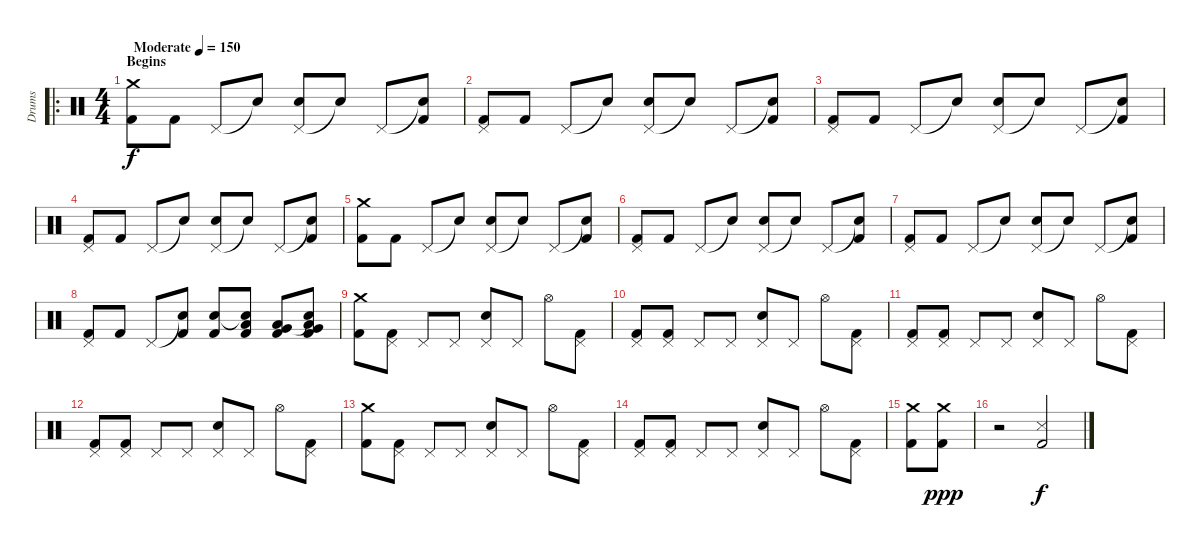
\track ("Drums" "Drums") {instrument percussion}
\staff {score}
\articulation defaults
\ro
\ts (4 4)
\section ("" "Begins")
\tempo (150 "Moderate")
\clef neutral
\ks c
("Crash medium (hit)" "Kick (hit) 2").8{dy f} "Kick (hit) 2".8 "Pedal Hi-Hat (hit)".8 "Snare (hit)"{t}.8 ("Pedal Hi-Hat (hit)" "Electric Snare (hit)").8 "Snare (hit)"{t}.8 "Pedal Hi-Hat (hit)".8 ("Snare (hit)"{t} "Kick (hit) 2").8 |
("Pedal Hi-Hat (hit)" "Kick (hit) 2").8 "Kick (hit) 2".8 "Pedal Hi-Hat (hit)".8 "Snare (hit)"{t}.8 ("Pedal Hi-Hat (hit)" "Electric Snare (hit)").8 "Snare (hit)"{t}.8 "Pedal Hi-Hat (hit)".8 ("Snare (hit)"{t} "Kick (hit) 2").8 |
("Pedal Hi-Hat (hit)" "Kick (hit) 2").8 "Kick (hit) 2".8 "Pedal Hi-Hat (hit)".8 "Snare (hit)"{t}.8 ("Pedal Hi-Hat (hit)" "Electric Snare (hit)").8 "Snare (hit)"{t}.8 "Pedal Hi-Hat (hit)".8 ("Snare (hit)"{t} "Kick (hit) 2").8 |
("Pedal Hi-Hat (hit)" "Kick (hit) 2").8 "Kick (hit) 2".8 "Pedal Hi-Hat (hit)".8 "Snare (hit)"{t}.8 ("Pedal Hi-Hat (hit)" "Electric Snare (hit)").8 "Snare (hit)"{t}.8 "Pedal Hi-Hat (hit)".8 ("Snare (hit)"{t} "Kick (hit) 2").8 |
("Crash medium (hit)" "Kick (hit) 2").8 "Kick (hit) 2".8 "Pedal Hi-Hat (hit)".8 "Snare (hit)"{t}.8 ("Pedal Hi-Hat (hit)" "Electric Snare (hit)").8 "Snare (hit)"{t}.8 "Pedal Hi-Hat (hit)".8 ("Snare (hit)"{t} "Kick (hit) 2").8 |
("Pedal Hi-Hat (hit)" "Kick (hit) 2").8 "Kick (hit) 2".8 "Pedal Hi-Hat (hit)".8 "Snare (hit)"{t}.8 ("Pedal Hi-Hat (hit)" "Electric Snare (hit)").8 "Snare (hit)"{t}.8 "Pedal Hi-Hat (hit)".8 ("Snare (hit)"{t} "Kick (hit) 2").8 |
("Pedal Hi-Hat (hit)" "Kick (hit) 2").8 "Kick (hit) 2".8 "Pedal Hi-Hat (hit)".8 "Snare (hit)"{t}.8 ("Pedal Hi-Hat (hit)" "Electric Snare (hit)").8 "Snare (hit)"{t}.8 "Pedal Hi-Hat (hit)".8 ("Snare (hit)"{t} "Kick (hit) 2").8 |
("Pedal Hi-Hat (hit)" "Kick (hit) 2").8 "Kick (hit) 2".8 "Pedal Hi-Hat (hit)".8 ("Snare (hit)"{t} "Kick (hit) 2").8 ("Electric Snare (hit)" "Kick (hit) 2").8 ("Snare (hit)"{t} "Low Floor Tom (hit)" "Kick (hit) 2").8 ("Very Low Tom (hit)" "Low Floor Tom (hit)" "Kick (hit) 2").8 ("Snare (hit)"{t} "Very Low Tom (hit)" "Low Floor Tom (hit)" "Kick (hit) 2").8 |
("Crash medium (hit)" "Kick (hit) 2").8 ("Pedal Hi-Hat (hit)" "Kick (hit) 2").8 "Pedal Hi-Hat (hit)".8 "Pedal Hi-Hat (hit)".8 ("Pedal Hi-Hat (hit)" "Electric Snare (hit)").8 "Pedal Hi-Hat (hit)".8 "Hi-Hat (open)".8 ("Pedal Hi-Hat (hit)" "Kick (hit) 2").8 |
("Pedal Hi-Hat (hit)" "Kick (hit) 2").8 ("Pedal Hi-Hat (hit)" "Kick (hit) 2").8 "Pedal Hi-Hat (hit)".8 "Pedal Hi-Hat (hit)".8 ("Pedal Hi-Hat (hit)" "Electric Snare (hit)").8 "Pedal Hi-Hat (hit)".8 "Hi-Hat (open)".8 ("Pedal Hi-Hat (hit)" "Kick (hit) 2").8 |
("Pedal Hi-Hat (hit)" "Kick (hit) 2").8 ("Pedal Hi-Hat (hit)" "Kick (hit) 2").8 "Pedal Hi-Hat (hit)".8 "Pedal Hi-Hat (hit)".8 ("Pedal Hi-Hat (hit)" "Electric Snare (hit)").8 "Pedal Hi-Hat (hit)".8 "Hi-Hat (open)".8 ("Pedal Hi-Hat (hit)" "Kick (hit) 2").8 |
("Pedal Hi-Hat (hit)" "Kick (hit) 2").8 ("Pedal Hi-Hat (hit)" "Kick (hit) 2").8 "Pedal Hi-Hat (hit)".8 "Pedal Hi-Hat (hit)".8 ("Pedal Hi-Hat (hit)" "Electric Snare (hit)").8 "Pedal Hi-Hat (hit)".8 "Hi-Hat (open)".8 ("Pedal Hi-Hat (hit)" "Kick (hit) 2").8 |
("Crash medium (hit)" "Kick (hit) 2").8 ("Pedal Hi-Hat (hit)" "Kick (hit) 2").8 "Pedal Hi-Hat (hit)".8 "Pedal Hi-Hat (hit)".8 ("Pedal Hi-Hat (hit)" "Electric Snare (hit)").8 "Pedal Hi-Hat (hit)".8 "Hi-Hat (open)".8 ("Pedal Hi-Hat (hit)" "Kick (hit) 2").8 |
("Pedal Hi-Hat (hit)" "Kick (hit) 2").8 ("Pedal Hi-Hat (hit)" "Kick (hit) 2").8 "Pedal Hi-Hat (hit)".8 "Pedal Hi-Hat (hit)".8 ("Pedal Hi-Hat (hit)" "Electric Snare (hit)").8 "Pedal Hi-Hat (hit)".8 "Hi-Hat (open)".8 ("Pedal Hi-Hat (hit)" "Kick (hit) 2").8 |
("Crash medium (hit)" "Kick (hit) 2").8 ("Crash medium (hit)" "Kick (hit) 2").8{dy ppp} |
r.2 ("Snare (side stick) 3" "Kick (hit) 2").2{dy f}
